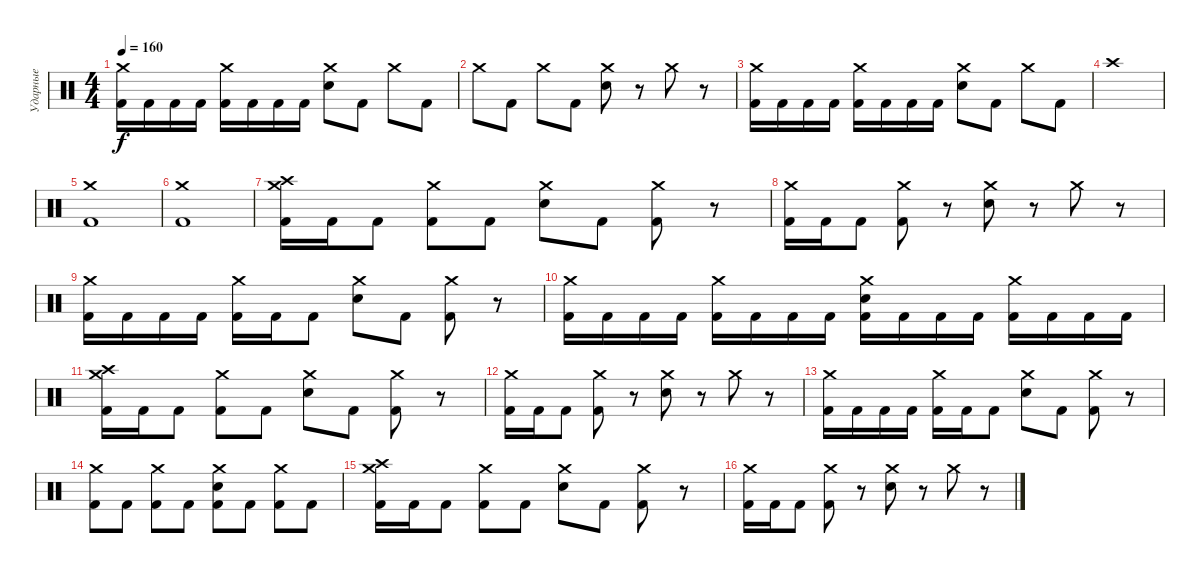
\track ("Ударные" "Ударные") {instrument percussion}
\staff {score}
\articulation defaults
\ts (4 4)
\tempo 160
\clef neutral
\ks c
("Crash medium (hit)" "Kick (hit) 2").16{dy f} "Kick (hit) 2".16 "Kick (hit) 2".16 "Kick (hit) 2".16 ("Crash medium (hit)" "Kick (hit) 2").16 "Kick (hit) 2".16 "Kick (hit) 2".16 "Kick (hit) 2".16 ("Crash medium (hit)" "Electric Snare (hit)").8 "Kick (hit) 2".8 "Crash medium (hit)".8 "Kick (hit) 2".8 |
"Crash medium (hit)".8 "Kick (hit) 2".8 "Crash medium (hit)".8 "Kick (hit) 2".8 ("Crash medium (hit)" "Electric Snare (hit)").8 r.8 "Crash medium (hit)".8 r.8 |
("Crash medium (hit)" "Kick (hit) 2").16 "Kick (hit) 2".16 "Kick (hit) 2".16 "Kick (hit) 2".16 ("Crash medium (hit)" "Kick (hit) 2").16 "Kick (hit) 2".16 "Kick (hit) 2".16 "Kick (hit) 2".16 ("Crash medium (hit)" "Electric Snare (hit)").8 "Kick (hit) 2".8 "Crash medium (hit)".8 "Kick (hit) 2".8 |
"Crash high (hit)".1 |
("Crash medium (hit)" "Kick (hit) 2").1 |
("Crash medium (hit)" "Kick (hit) 2").1 |
("Crash medium (hit)" "Crash high (hit)" "Kick (hit) 2").16 "Kick (hit) 2".16 "Kick (hit) 2".8 ("Crash medium (hit)" "Kick (hit) 2").8 "Kick (hit) 2".8 ("Crash medium (hit)" "Electric Snare (hit)").8 "Kick (hit) 2".8 ("Crash medium (hit)" "Kick (hit) 2").8 r.8 |
("Crash medium (hit)" "Kick (hit) 2").16 "Kick (hit) 2".16 "Kick (hit) 2".8 ("Crash medium (hit)" "Kick (hit) 2").8 r.8 ("Crash medium (hit)" "Electric Snare (hit)").8 r.8 "Crash medium (hit)".8 r.8 |
("Crash medium (hit)" "Kick (hit) 2").16 "Kick (hit) 2".16 "Kick (hit) 2".16 "Kick (hit) 2".16 ("Crash medium (hit)" "Kick (hit) 2").16 "Kick (hit) 2".16 "Kick (hit) 2".8 ("Crash medium (hit)" "Electric Snare (hit)").8 "Kick (hit) 2".8 ("Crash medium (hit)" "Kick (hit) 2").8 r.8 |
("Crash medium (hit)" "Kick (hit) 2").16 "Kick (hit) 2".16 "Kick (hit) 2".16 "Kick (hit) 2".16 ("Crash medium (hit)" "Kick (hit) 2").16 "Kick (hit) 2".16 "Kick (hit) 2".16 "Kick (hit) 2".16 ("Crash medium (hit)" "Electric Snare (hit)" "Kick (hit) 2").16 "Kick (hit) 2".16 "Kick (hit) 2".16 "Kick (hit) 2".16 ("Crash medium (hit)" "Kick (hit) 2").16 "Kick (hit) 2".16 "Kick (hit) 2".16 "Kick (hit) 2".16 |
("Crash medium (hit)" "Crash high (hit)" "Kick (hit) 2").16 "Kick (hit) 2".16 "Kick (hit) 2".8 ("Crash medium (hit)" "Kick (hit) 2").8 "Kick (hit) 2".8 ("Crash medium (hit)" "Electric Snare (hit)").8 "Kick (hit) 2".8 ("Crash medium (hit)" "Kick (hit) 2").8 r.8 |
("Crash medium (hit)" "Kick (hit) 2").16 "Kick (hit) 2".16 "Kick (hit) 2".8 ("Crash medium (hit)" "Kick (hit) 2").8 r.8 ("Crash medium (hit)" "Electric Snare (hit)").8 r.8 "Crash medium (hit)".8 r.8 |
("Crash medium (hit)" "Kick (hit) 2").16 "Kick (hit) 2".16 "Kick (hit) 2".16 "Kick (hit) 2".16 ("Crash medium (hit)" "Kick (hit) 2").16 "Kick (hit) 2".16 "Kick (hit) 2".8 ("Crash medium (hit)" "Electric Snare (hit)").8 "Kick (hit) 2".8 ("Crash medium (hit)" "Kick (hit) 2").8 r.8 |
("Crash medium (hit)" "Kick (hit) 2").8 "Kick (hit) 2".8 ("Crash medium (hit)" "Kick (hit) 2").8 "Kick (hit) 2".8 ("Crash medium (hit)" "Electric Snare (hit)" "Kick (hit) 2").8 "Kick (hit) 2".8 ("Crash medium (hit)" "Kick (hit) 2").8 "Kick (hit) 2".8 |
("Crash medium (hit)" "Crash high (hit)" "Kick (hit) 2").16 "Kick (hit) 2".16 "Kick (hit) 2".8 ("Crash medium (hit)" "Kick (hit) 2").8 "Kick (hit) 2".8 ("Crash medium (hit)" "Electric Snare (hit)").8 "Kick (hit) 2".8 ("Crash medium (hit)" "Kick (hit) 2").8 r.8 |
("Crash medium (hit)" "Kick (hit) 2").16 "Kick (hit) 2".16 "Kick (hit) 2".8 ("Crash medium (hit)" "Kick (hit) 2").8 r.8 ("Crash medium (hit)" "Electric Snare (hit)").8 r.8 "Crash medium (hit)".8 r.8
